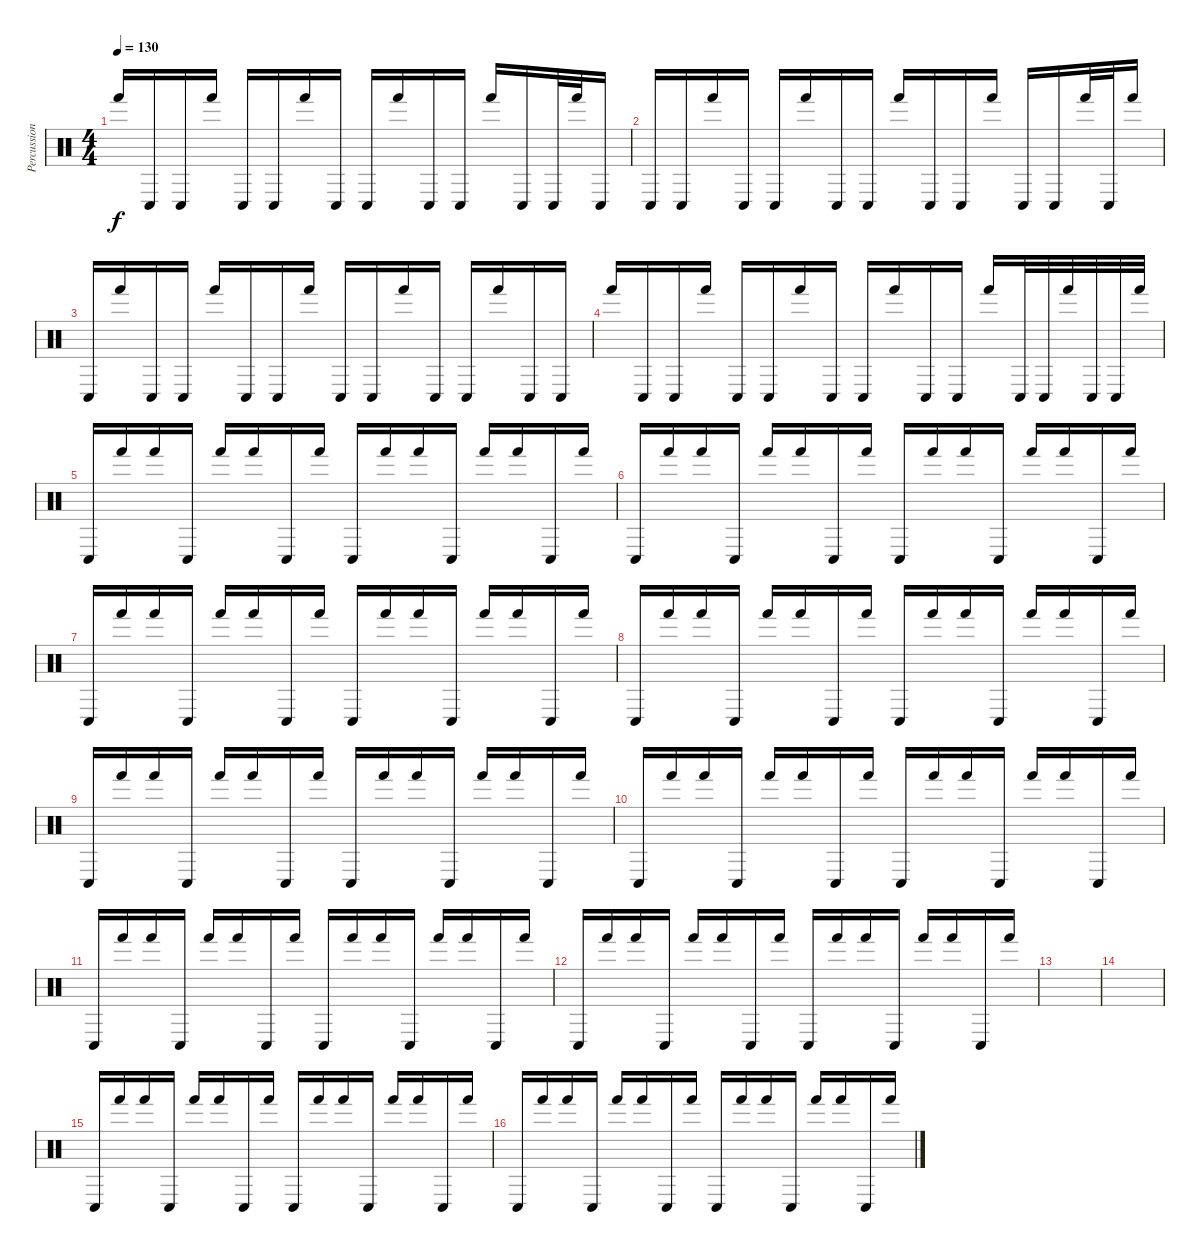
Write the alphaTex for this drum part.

\track ("Percussion" "Percussion") {instrument percussion}
\staff {score}
\articulation defaults
\ts (4 4)
\tempo 130
\clef neutral
\ks c "Hand (hit)".16{dy f} "Conga low (hit)".16 "Conga low (hit)".16 "Hand (hit)".16 "Conga low (hit)".16 "Conga low (hit)".16 "Hand (hit)".16 "Conga low (hit)".16 "Conga low (hit)".16 "Hand (hit)".16 "Conga low (hit)".16 "Conga low (hit)".16 "Hand (hit)".16 "Conga low (hit)".16 "Conga low (hit)".32 "Hand (hit)".32 "Conga low (hit)".16
|
"Conga low (hit)".16 "Conga low (hit)".16 "Hand (hit)".16 "Conga low (hit)".16 "Conga low (hit)".16 "Hand (hit)".16 "Conga low (hit)".16 "Conga low (hit)".16 "Hand (hit)".16 "Conga low (hit)".16 "Conga low (hit)".16 "Hand (hit)".16 "Conga low (hit)".16 "Conga low (hit)".16 "Hand (hit)".32 "Conga low (hit)".32 "Hand (hit)".16 |
"Conga low (hit)".16 "Hand (hit)".16 "Conga low (hit)".16 "Conga low (hit)".16 "Hand (hit)".16 "Conga low (hit)".16 "Conga low (hit)".16 "Hand (hit)".16 "Conga low (hit)".16 "Conga low (hit)".16 "Hand (hit)".16 "Conga low (hit)".16 "Conga low (hit)".16 "Hand (hit)".16 "Conga low (hit)".16 "Conga low (hit)".16 |
"Hand (hit)".16 "Conga low (hit)".16 "Conga low (hit)".16 "Hand (hit)".16 "Conga low (hit)".16 "Conga low (hit)".16 "Hand (hit)".16 "Conga low (hit)".16 "Conga low (hit)".16 "Hand (hit)".16 "Conga low (hit)".16 "Conga low (hit)".16 "Hand (hit)".16 "Conga low (hit)".32 "Conga low (hit)".32 "Hand (hit)".32 "Conga low (hit)".32 "Conga low (hit)".32 "Hand (hit)".32 |
"Conga low (hit)".16 "Hand (hit)".16 "Hand (hit)".16 "Conga low (hit)".16 "Hand (hit)".16 "Hand (hit)".16 "Conga low (hit)".16 "Hand (hit)".16 "Conga low (hit)".16 "Hand (hit)".16 "Hand (hit)".16 "Conga low (hit)".16 "Hand (hit)".16 "Hand (hit)".16 "Conga low (hit)".16 "Hand (hit)".16 |
"Conga low (hit)".16 "Hand (hit)".16 "Hand (hit)".16 "Conga low (hit)".16 "Hand (hit)".16 "Hand (hit)".16 "Conga low (hit)".16 "Hand (hit)".16 "Conga low (hit)".16 "Hand (hit)".16 "Hand (hit)".16 "Conga low (hit)".16 "Hand (hit)".16 "Hand (hit)".16 "Conga low (hit)".16 "Hand (hit)".16 |
"Conga low (hit)".16 "Hand (hit)".16 "Hand (hit)".16 "Conga low (hit)".16 "Hand (hit)".16 "Hand (hit)".16 "Conga low (hit)".16 "Hand (hit)".16 "Conga low (hit)".16 "Hand (hit)".16 "Hand (hit)".16 "Conga low (hit)".16 "Hand (hit)".16 "Hand (hit)".16 "Conga low (hit)".16 "Hand (hit)".16 |
"Conga low (hit)".16 "Hand (hit)".16 "Hand (hit)".16 "Conga low (hit)".16 "Hand (hit)".16 "Hand (hit)".16 "Conga low (hit)".16 "Hand (hit)".16 "Conga low (hit)".16 "Hand (hit)".16 "Hand (hit)".16 "Conga low (hit)".16 "Hand (hit)".16 "Hand (hit)".16 "Conga low (hit)".16 "Hand (hit)".16 |
"Conga low (hit)".16 "Hand (hit)".16 "Hand (hit)".16 "Conga low (hit)".16 "Hand (hit)".16 "Hand (hit)".16 "Conga low (hit)".16 "Hand (hit)".16 "Conga low (hit)".16 "Hand (hit)".16 "Hand (hit)".16 "Conga low (hit)".16 "Hand (hit)".16 "Hand (hit)".16 "Conga low (hit)".16 "Hand (hit)".16 |
"Conga low (hit)".16 "Hand (hit)".16 "Hand (hit)".16 "Conga low (hit)".16 "Hand (hit)".16 "Hand (hit)".16 "Conga low (hit)".16 "Hand (hit)".16 "Conga low (hit)".16 "Hand (hit)".16 "Hand (hit)".16 "Conga low (hit)".16 "Hand (hit)".16 "Hand (hit)".16 "Conga low (hit)".16 "Hand (hit)".16 |
"Conga low (hit)".16 "Hand (hit)".16 "Hand (hit)".16 "Conga low (hit)".16 "Hand (hit)".16 "Hand (hit)".16 "Conga low (hit)".16 "Hand (hit)".16 "Conga low (hit)".16 "Hand (hit)".16 "Hand (hit)".16 "Conga low (hit)".16 "Hand (hit)".16 "Hand (hit)".16 "Conga low (hit)".16 "Hand (hit)".16 |
"Conga low (hit)".16 "Hand (hit)".16 "Hand (hit)".16 "Conga low (hit)".16 "Hand (hit)".16 "Hand (hit)".16 "Conga low (hit)".16 "Hand (hit)".16 "Conga low (hit)".16 "Hand (hit)".16 "Hand (hit)".16 "Conga low (hit)".16 "Hand (hit)".16 "Hand (hit)".16 "Conga low (hit)".16 "Hand (hit)".16 |
|
|
"Conga low (hit)".16 "Hand (hit)".16 "Hand (hit)".16 "Conga low (hit)".16 "Hand (hit)".16 "Hand (hit)".16 "Conga low (hit)".16 "Hand (hit)".16 "Conga low (hit)".16 "Hand (hit)".16 "Hand (hit)".16 "Conga low (hit)".16 "Hand (hit)".16 "Hand (hit)".16 "Conga low (hit)".16 "Hand (hit)".16 |
"Conga low (hit)".16 "Hand (hit)".16 "Hand (hit)".16 "Conga low (hit)".16 "Hand (hit)".16 "Hand (hit)".16 "Conga low (hit)".16 "Hand (hit)".16 "Conga low (hit)".16 "Hand (hit)".16 "Hand (hit)".16 "Conga low (hit)".16 "Hand (hit)".16 "Hand (hit)".16 "Conga low (hit)".16 "Hand (hit)".16
